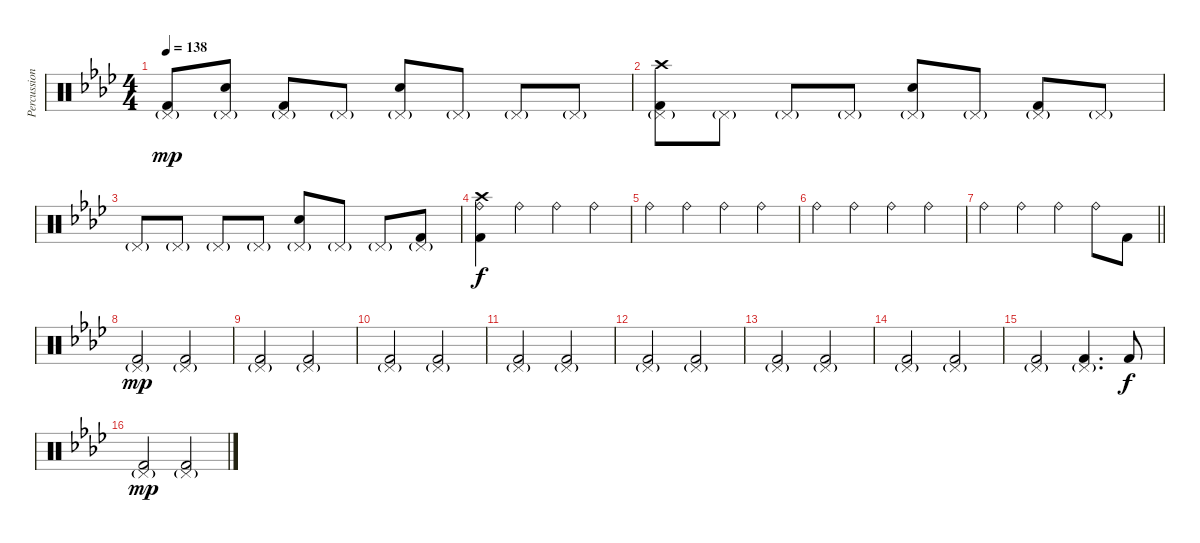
\track ("Percussion" "Percussion") {instrument percussion}
\staff {score}
\articulation defaults
\ts (4 4)
\tempo 138
\clef neutral
\ks ab
("Pedal Hi-Hat (hit)"{g} "Kick (hit) 2").8{dy mp} ("Snare (hit) 2" "Pedal Hi-Hat (hit)"{g}).8 ("Pedal Hi-Hat (hit)"{g} "Kick (hit) 2").8 "Pedal Hi-Hat (hit)"{g}.8 ("Snare (hit) 2" "Pedal Hi-Hat (hit)"{g}).8 "Pedal Hi-Hat (hit)"{g}.8 "Pedal Hi-Hat (hit)"{g}.8 "Pedal Hi-Hat (hit)"{g}.8 |
("Crash high (hit)" "Pedal Hi-Hat (hit)"{g} "Kick (hit) 2").8 "Pedal Hi-Hat (hit)"{g}.8 "Pedal Hi-Hat (hit)"{g}.8 "Pedal Hi-Hat (hit)"{g}.8 ("Snare (hit) 2" "Pedal Hi-Hat (hit)"{g}).8 "Pedal Hi-Hat (hit)"{g}.8 ("Pedal Hi-Hat (hit)"{g} "Kick (hit) 2").8 "Pedal Hi-Hat (hit)"{g}.8 |
"Pedal Hi-Hat (hit)"{g}.8 "Pedal Hi-Hat (hit)"{g}.8 "Pedal Hi-Hat (hit)"{g}.8 "Pedal Hi-Hat (hit)"{g}.8 ("Snare (hit) 2" "Pedal Hi-Hat (hit)"{g}).8 "Pedal Hi-Hat (hit)"{g}.8 "Pedal Hi-Hat (hit)"{g}.8 ("Pedal Hi-Hat (hit)"{g} "Kick (hit) 2").8 |
("Ride (bell)" "Crash high (hit)" "Kick (hit) 2").4{dy f} "Ride (bell)".4 "Ride (bell)".4 "Ride (bell)".4 |
"Ride (bell)".4 "Ride (bell)".4 "Ride (bell)".4 "Ride (bell)".4 |
"Ride (bell)".4 "Ride (bell)".4 "Ride (bell)".4 "Ride (bell)".4 |
\barLineRight lightlight "Ride (bell)".4 "Ride (bell)".4 "Ride (bell)".4 "Ride (bell)".8 "Kick (hit) 2".8
|
("Pedal Hi-Hat (hit)"{g} "Kick (hit) 2").2{dy mp} ("Pedal Hi-Hat (hit)"{g} "Kick (hit) 2").2 |
("Pedal Hi-Hat (hit)"{g} "Kick (hit) 2").2 ("Pedal Hi-Hat (hit)"{g} "Kick (hit) 2").2 |
("Pedal Hi-Hat (hit)"{g} "Kick (hit) 2").2 ("Pedal Hi-Hat (hit)"{g} "Kick (hit) 2").2 |
("Pedal Hi-Hat (hit)"{g} "Kick (hit) 2").2 ("Pedal Hi-Hat (hit)"{g} "Kick (hit) 2").2 |
("Pedal Hi-Hat (hit)"{g} "Kick (hit) 2").2 ("Pedal Hi-Hat (hit)"{g} "Kick (hit) 2").2 |
("Pedal Hi-Hat (hit)"{g} "Kick (hit) 2").2 ("Pedal Hi-Hat (hit)"{g} "Kick (hit) 2").2 |
("Pedal Hi-Hat (hit)"{g} "Kick (hit) 2").2 ("Pedal Hi-Hat (hit)"{g} "Kick (hit) 2").2 |
("Pedal Hi-Hat (hit)"{g} "Kick (hit) 2").2 ("Pedal Hi-Hat (hit)"{g} "Kick (hit) 2").4{d} "Kick (hit) 2".8{dy f} |
("Pedal Hi-Hat (hit)"{g} "Kick (hit) 2").2{dy mp} ("Pedal Hi-Hat (hit)"{g} "Kick (hit) 2").2
